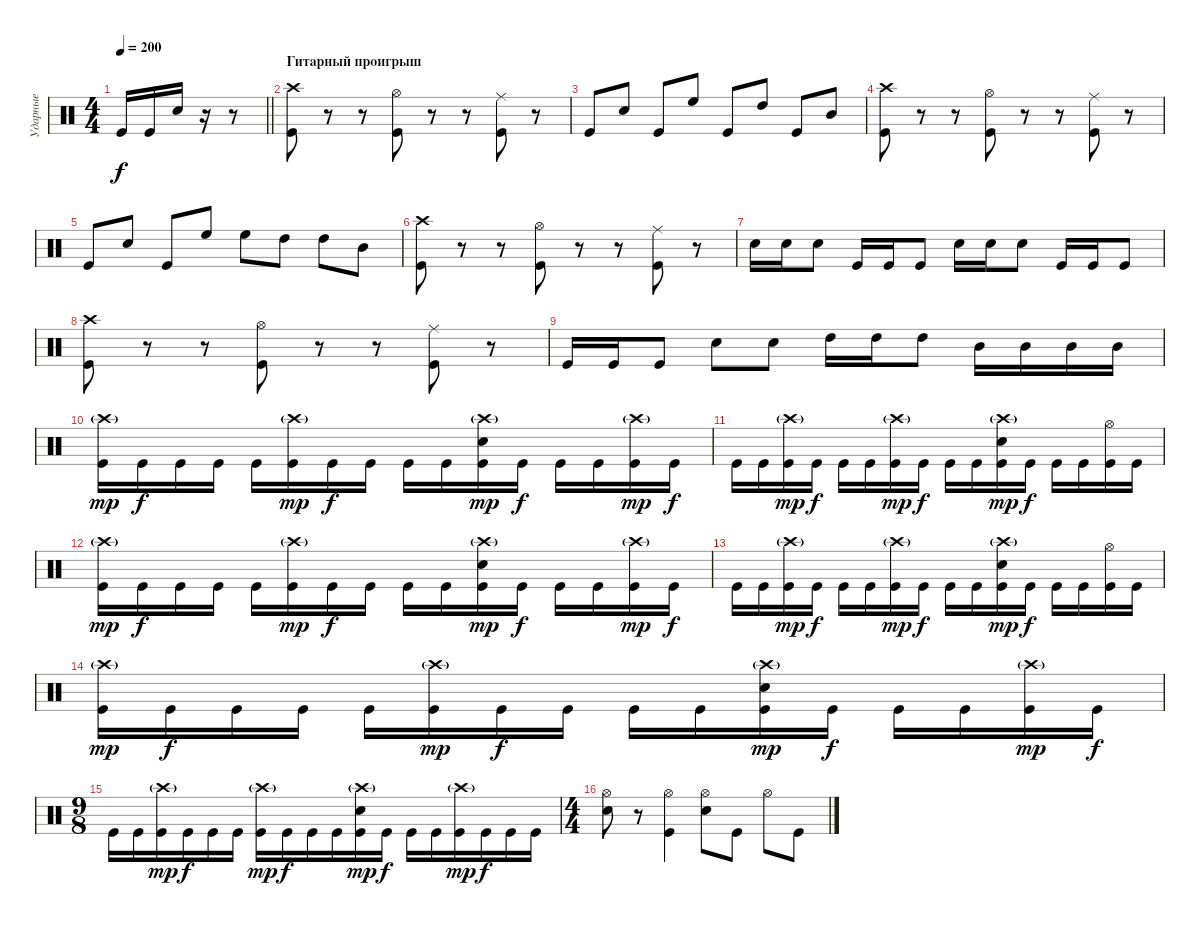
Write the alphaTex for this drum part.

\track ("Ударные" "Ударные") {instrument percussion}
\staff {score}
\articulation defaults
\ts (4 4)
\tempo 200
\clef neutral
\barLineRight lightlight
\ks c "Kick (hit)".16{dy f} "Kick (hit)".16 "Snare (hit) 2".16
r.16 r.8 |
\section ("" "Гитарный проигрыш")
("Crash high (hit)" "Kick (hit)").8 r.8 r.8 ("Hi-Hat (open)" "Kick (hit)").8 r.8 r.8 ("Ride (middle)" "Kick (hit)").8 r.8 |
"Kick (hit)".8 "Snare (hit) 2".8 "Kick (hit)".8 "High Floor Tom (hit)".8 "Kick (hit)".8 "High Tom (hit)".8 "Kick (hit)".8 "Mid Tom (hit)".8 |
("Crash high (hit)" "Kick (hit)").8 r.8 r.8 ("Hi-Hat (open)" "Kick (hit)").8 r.8 r.8 ("Ride (middle)" "Kick (hit)").8 r.8 |
"Kick (hit)".8 "Snare (hit) 2".8 "Kick (hit)".8 "High Floor Tom (hit)".8 "High Floor Tom (hit)".8 "High Tom (hit)".8 "High Tom (hit)".8 "Mid Tom (hit)".8 |
("Crash high (hit)" "Kick (hit)").8 r.8 r.8 ("Hi-Hat (open)" "Kick (hit)").8 r.8 r.8 ("Ride (middle)" "Kick (hit)").8 r.8 |
"Snare (hit) 2".16 "Snare (hit) 2".16 "Snare (hit) 2".8 "Kick (hit)".16 "Kick (hit)".16 "Kick (hit)".8 "Snare (hit) 2".16 "Snare (hit) 2".16 "Snare (hit) 2".8 "Kick (hit)".16 "Kick (hit)".16 "Kick (hit)".8 |
("Crash high (hit)" "Kick (hit)").8 r.8 r.8 ("Hi-Hat (open)" "Kick (hit)").8 r.8 r.8 ("Ride (middle)" "Kick (hit)").8 r.8 |
"Kick (hit)".16 "Kick (hit)".16 "Kick (hit)".8 "Snare (hit) 2".8 "Snare (hit) 2".8 "High Tom (hit)".16 "High Tom (hit)".16 "High Tom (hit)".8 "Mid Tom (hit)".16 "Mid Tom (hit)".16 "Mid Tom (hit)".16 "Mid Tom (hit)".16 |
("Crash high (hit)"{g} "Kick (hit)").16{dy mp} "Kick (hit)".16{dy f} "Kick (hit)".16 "Kick (hit)".16 "Kick (hit)".16 ("Crash high (hit)"{g} "Kick (hit)").16{dy mp} "Kick (hit)".16{dy f} "Kick (hit)".16 "Kick (hit)".16 "Kick (hit)".16 ("Crash high (hit)"{g} "Snare (hit) 2" "Kick (hit)").16{dy mp} "Kick (hit)".16{dy f} "Kick (hit)".16 "Kick (hit)".16 ("Crash high (hit)"{g} "Kick (hit)").16{dy mp} "Kick (hit)".16{dy f} |
"Kick (hit)".16 "Kick (hit)".16 ("Crash high (hit)"{g} "Kick (hit)").16{dy mp} "Kick (hit)".16{dy f} "Kick (hit)".16 "Kick (hit)".16 ("Crash high (hit)"{g} "Kick (hit)").16{dy mp} "Kick (hit)".16{dy f} "Kick (hit)".16 "Kick (hit)".16 ("Crash high (hit)"{g} "Snare (hit) 2" "Kick (hit)").16{dy mp} "Kick (hit)".16{dy f} "Kick (hit)".16 "Kick (hit)".16 ("Hi-Hat (open)" "Kick (hit)").16 "Kick (hit)".16 |
("Crash high (hit)"{g} "Kick (hit)").16{dy mp} "Kick (hit)".16{dy f} "Kick (hit)".16 "Kick (hit)".16 "Kick (hit)".16 ("Crash high (hit)"{g} "Kick (hit)").16{dy mp} "Kick (hit)".16{dy f} "Kick (hit)".16 "Kick (hit)".16 "Kick (hit)".16 ("Crash high (hit)"{g} "Snare (hit) 2" "Kick (hit)").16{dy mp} "Kick (hit)".16{dy f} "Kick (hit)".16 "Kick (hit)".16 ("Crash high (hit)"{g} "Kick (hit)").16{dy mp} "Kick (hit)".16{dy f} |
"Kick (hit)".16 "Kick (hit)".16 ("Crash high (hit)"{g} "Kick (hit)").16{dy mp} "Kick (hit)".16{dy f} "Kick (hit)".16 "Kick (hit)".16 ("Crash high (hit)"{g} "Kick (hit)").16{dy mp} "Kick (hit)".16{dy f} "Kick (hit)".16 "Kick (hit)".16 ("Crash high (hit)"{g} "Snare (hit) 2" "Kick (hit)").16{dy mp} "Kick (hit)".16{dy f} "Kick (hit)".16 "Kick (hit)".16 ("Hi-Hat (open)" "Kick (hit)").16 "Kick (hit)".16 |
("Crash high (hit)"{g} "Kick (hit)").16{dy mp} "Kick (hit)".16{dy f} "Kick (hit)".16 "Kick (hit)".16 "Kick (hit)".16 ("Crash high (hit)"{g} "Kick (hit)").16{dy mp} "Kick (hit)".16{dy f} "Kick (hit)".16 "Kick (hit)".16 "Kick (hit)".16 ("Crash high (hit)"{g} "Snare (hit) 2" "Kick (hit)").16{dy mp} "Kick (hit)".16{dy f} "Kick (hit)".16 "Kick (hit)".16 ("Crash high (hit)"{g} "Kick (hit)").16{dy mp} "Kick (hit)".16{dy f} |
\ts (9 8)
"Kick (hit)".16 "Kick (hit)".16 ("Crash high (hit)"{g} "Kick (hit)").16{dy mp} "Kick (hit)".16{dy f} "Kick (hit)".16 "Kick (hit)".16 ("Crash high (hit)"{g} "Kick (hit)").16{dy mp} "Kick (hit)".16{dy f} "Kick (hit)".16 "Kick (hit)".16 ("Crash high (hit)"{g} "Snare (hit) 2" "Kick (hit)").16{dy mp} "Kick (hit)".16{dy f} "Kick (hit)".16 "Kick (hit)".16 ("Crash high (hit)"{g} "Kick (hit)").16{dy mp} "Kick (hit)".16{dy f} "Kick (hit)".16 "Kick (hit)".16 |
\ts (4 4)
("Hi-Hat (open)" "Snare (hit) 2").8 r.8 ("Hi-Hat (open)" "Kick (hit)").4 ("Hi-Hat (open)" "Snare (hit) 2").8 "Kick (hit)".8 "Hi-Hat (open)".8 "Kick (hit)".8
